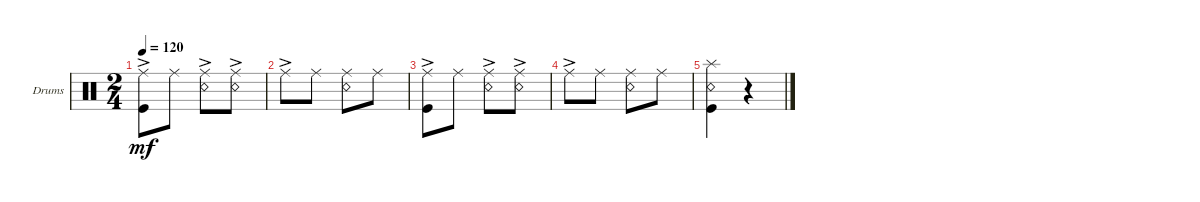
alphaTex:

\defaultSystemsLayout 4
\bracketExtendMode groupsimilarinstruments
\firstSystemTrackNameOrientation horizontal
\otherSystemsTrackNameOrientation horizontal
\track ("Drumkit" "Drums") {instrument percussion}
\staff {score}
\articulation defaults
\ts (2 4)
\tempo 120
\clef neutral
\ks c
("Ride (middle)"{ac} "Kick (hit)").8{dy mf} "Ride (middle)".8 ("Ride (middle)" "Snare (rim shot)"{ac}).8 ("Ride (middle)" "Snare (rim shot)"{ac}).8 |
"Ride (middle)"{ac}.8 "Ride (middle)".8 ("Ride (middle)" "Snare (rim shot)").8 "Ride (middle)".8 |
("Ride (middle)"{ac} "Kick (hit)").8 "Ride (middle)".8 ("Ride (middle)" "Snare (rim shot)"{ac}).8 ("Ride (middle)" "Snare (rim shot)"{ac}).8 |
"Ride (middle)"{ac}.8 "Ride (middle)".8 ("Ride (middle)" "Snare (rim shot)").8 "Ride (middle)".8 |
("Kick (hit)" "Snare (rim shot)" "Splash (hit)").4 r.4
